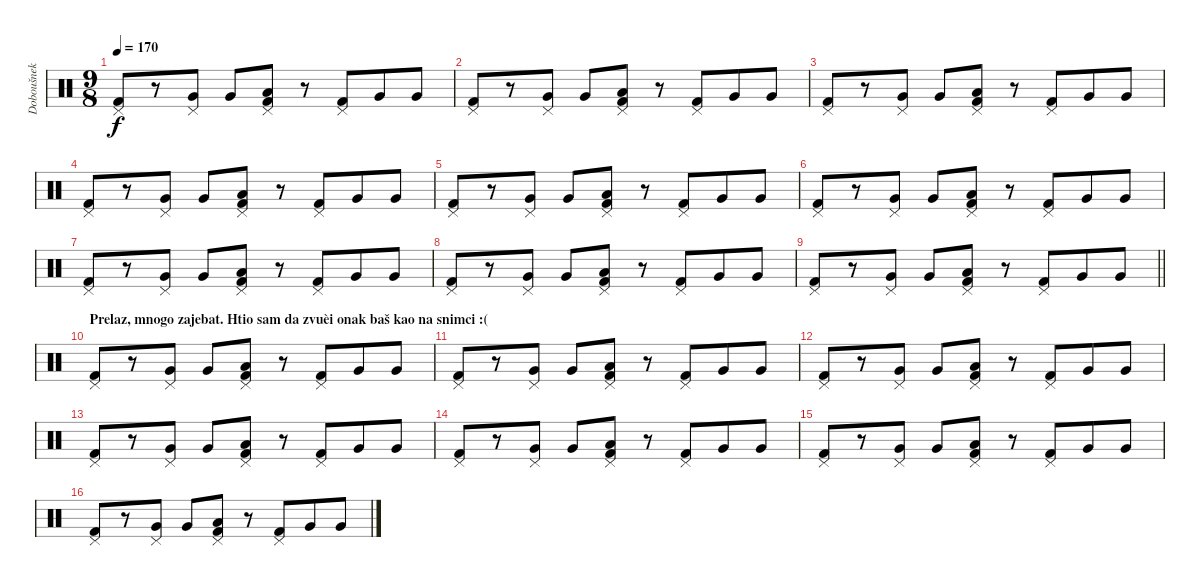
\track ("Doboušnek" "Doboušnek") {instrument percussion}
\staff {score}
\articulation defaults
\ts (9 8)
\tempo 170
\clef neutral
\ks c
("Pedal Hi-Hat (hit)" "Kick (hit) 2").8{dy f} r.8 ("Pedal Hi-Hat (hit)" "Very Low Tom (hit)").8 "Very Low Tom (hit)".8 ("Pedal Hi-Hat (hit)" "Low Tom (hit)" "Kick (hit) 2").8 r.8 ("Pedal Hi-Hat (hit)" "Kick (hit) 2").8 "Very Low Tom (hit)".8 "Very Low Tom (hit)".8 |
("Pedal Hi-Hat (hit)" "Kick (hit) 2").8 r.8 ("Pedal Hi-Hat (hit)" "Very Low Tom (hit)").8 "Very Low Tom (hit)".8 ("Pedal Hi-Hat (hit)" "Low Tom (hit)" "Kick (hit) 2").8 r.8 ("Pedal Hi-Hat (hit)" "Kick (hit) 2").8 "Very Low Tom (hit)".8 "Very Low Tom (hit)".8 |
("Pedal Hi-Hat (hit)" "Kick (hit) 2").8 r.8 ("Pedal Hi-Hat (hit)" "Very Low Tom (hit)").8 "Very Low Tom (hit)".8 ("Pedal Hi-Hat (hit)" "Low Tom (hit)" "Kick (hit) 2").8 r.8 ("Pedal Hi-Hat (hit)" "Kick (hit) 2").8 "Very Low Tom (hit)".8 "Very Low Tom (hit)".8 |
("Pedal Hi-Hat (hit)" "Kick (hit) 2").8 r.8 ("Pedal Hi-Hat (hit)" "Very Low Tom (hit)").8 "Very Low Tom (hit)".8 ("Pedal Hi-Hat (hit)" "Low Tom (hit)" "Kick (hit) 2").8 r.8 ("Pedal Hi-Hat (hit)" "Kick (hit) 2").8 "Very Low Tom (hit)".8 "Very Low Tom (hit)".8 |
("Pedal Hi-Hat (hit)" "Kick (hit) 2").8 r.8 ("Pedal Hi-Hat (hit)" "Very Low Tom (hit)").8 "Very Low Tom (hit)".8 ("Pedal Hi-Hat (hit)" "Low Tom (hit)" "Kick (hit) 2").8 r.8 ("Pedal Hi-Hat (hit)" "Kick (hit) 2").8 "Very Low Tom (hit)".8 "Very Low Tom (hit)".8 |
("Pedal Hi-Hat (hit)" "Kick (hit) 2").8 r.8 ("Pedal Hi-Hat (hit)" "Very Low Tom (hit)").8 "Very Low Tom (hit)".8 ("Pedal Hi-Hat (hit)" "Low Tom (hit)" "Kick (hit) 2").8 r.8 ("Pedal Hi-Hat (hit)" "Kick (hit) 2").8 "Very Low Tom (hit)".8 "Very Low Tom (hit)".8 |
("Pedal Hi-Hat (hit)" "Kick (hit) 2").8 r.8 ("Pedal Hi-Hat (hit)" "Very Low Tom (hit)").8 "Very Low Tom (hit)".8 ("Pedal Hi-Hat (hit)" "Low Tom (hit)" "Kick (hit) 2").8 r.8 ("Pedal Hi-Hat (hit)" "Kick (hit) 2").8 "Very Low Tom (hit)".8 "Very Low Tom (hit)".8 |
("Pedal Hi-Hat (hit)" "Kick (hit) 2").8 r.8 ("Pedal Hi-Hat (hit)" "Very Low Tom (hit)").8 "Very Low Tom (hit)".8 ("Pedal Hi-Hat (hit)" "Low Tom (hit)" "Kick (hit) 2").8 r.8 ("Pedal Hi-Hat (hit)" "Kick (hit) 2").8 "Very Low Tom (hit)".8 "Very Low Tom (hit)".8 |
\barLineRight lightlight
("Pedal Hi-Hat (hit)" "Kick (hit) 2").8 r.8 ("Pedal Hi-Hat (hit)" "Very Low Tom (hit)").8 "Very Low Tom (hit)".8 ("Pedal Hi-Hat (hit)" "Low Tom (hit)" "Kick (hit) 2").8 r.8 ("Pedal Hi-Hat (hit)" "Kick (hit) 2").8 "Very Low Tom (hit)".8 "Very Low Tom (hit)".8 |
\section ("" "Prelaz, mnogo zajebat. Htio sam da zvuèi onak baš kao na snimci :(")
("Pedal Hi-Hat (hit)" "Kick (hit) 2").8 r.8 ("Pedal Hi-Hat (hit)" "Very Low Tom (hit)").8 "Very Low Tom (hit)".8 ("Pedal Hi-Hat (hit)" "Low Tom (hit)" "Kick (hit) 2").8 r.8 ("Pedal Hi-Hat (hit)" "Kick (hit) 2").8 "Very Low Tom (hit)".8 "Very Low Tom (hit)".8 |
("Pedal Hi-Hat (hit)" "Kick (hit) 2").8 r.8 ("Pedal Hi-Hat (hit)" "Very Low Tom (hit)").8 "Very Low Tom (hit)".8 ("Pedal Hi-Hat (hit)" "Low Tom (hit)" "Kick (hit) 2").8 r.8 ("Pedal Hi-Hat (hit)" "Kick (hit) 2").8 "Very Low Tom (hit)".8 "Very Low Tom (hit)".8 |
("Pedal Hi-Hat (hit)" "Kick (hit) 2").8 r.8 ("Pedal Hi-Hat (hit)" "Very Low Tom (hit)").8 "Very Low Tom (hit)".8 ("Pedal Hi-Hat (hit)" "Low Tom (hit)" "Kick (hit) 2").8 r.8 ("Pedal Hi-Hat (hit)" "Kick (hit) 2").8 "Very Low Tom (hit)".8 "Very Low Tom (hit)".8 |
("Pedal Hi-Hat (hit)" "Kick (hit) 2").8 r.8 ("Pedal Hi-Hat (hit)" "Very Low Tom (hit)").8 "Very Low Tom (hit)".8 ("Pedal Hi-Hat (hit)" "Low Tom (hit)" "Kick (hit) 2").8 r.8 ("Pedal Hi-Hat (hit)" "Kick (hit) 2").8 "Very Low Tom (hit)".8 "Very Low Tom (hit)".8 |
("Pedal Hi-Hat (hit)" "Kick (hit) 2").8 r.8 ("Pedal Hi-Hat (hit)" "Very Low Tom (hit)").8 "Very Low Tom (hit)".8 ("Pedal Hi-Hat (hit)" "Low Tom (hit)" "Kick (hit) 2").8 r.8 ("Pedal Hi-Hat (hit)" "Kick (hit) 2").8 "Very Low Tom (hit)".8 "Very Low Tom (hit)".8 |
("Pedal Hi-Hat (hit)" "Kick (hit) 2").8 r.8 ("Pedal Hi-Hat (hit)" "Very Low Tom (hit)").8 "Very Low Tom (hit)".8 ("Pedal Hi-Hat (hit)" "Low Tom (hit)" "Kick (hit) 2").8 r.8 ("Pedal Hi-Hat (hit)" "Kick (hit) 2").8 "Very Low Tom (hit)".8 "Very Low Tom (hit)".8 |
("Pedal Hi-Hat (hit)" "Kick (hit) 2").8 r.8 ("Pedal Hi-Hat (hit)" "Very Low Tom (hit)").8 "Very Low Tom (hit)".8 ("Pedal Hi-Hat (hit)" "Low Tom (hit)" "Kick (hit) 2").8 r.8 ("Pedal Hi-Hat (hit)" "Kick (hit) 2").8 "Very Low Tom (hit)".8 "Very Low Tom (hit)".8
